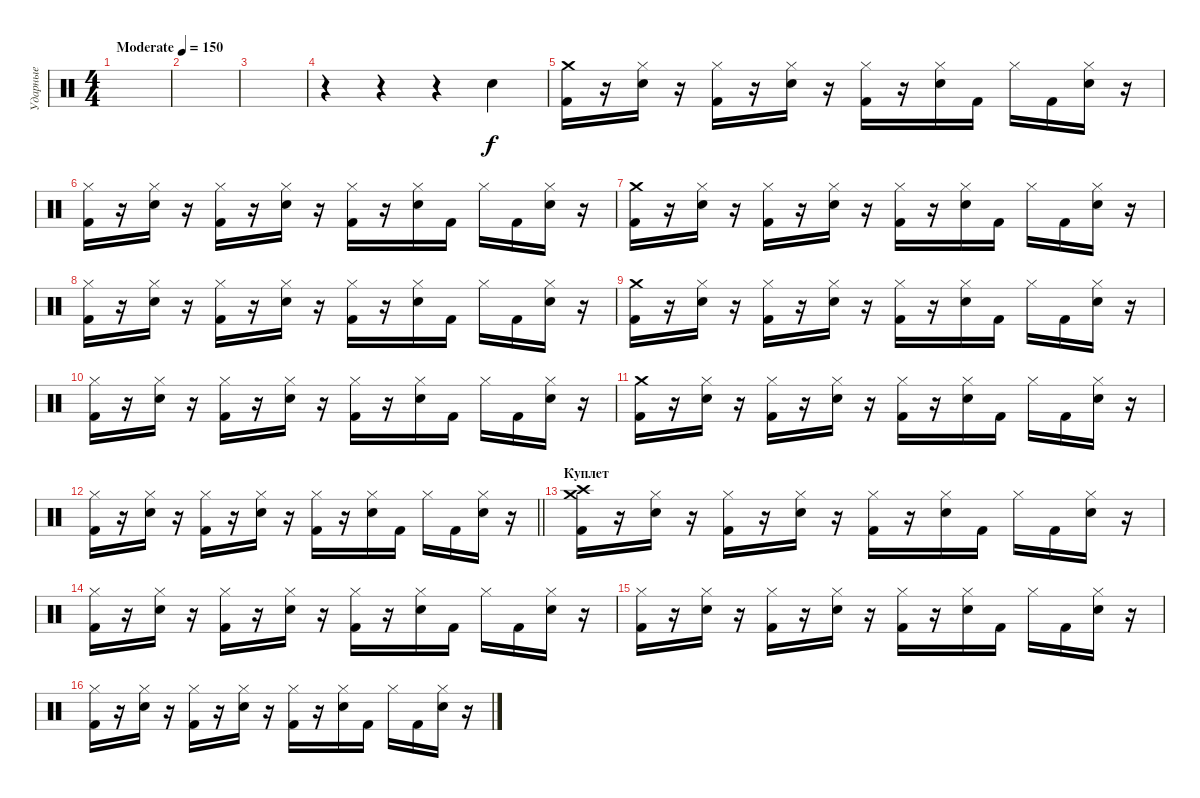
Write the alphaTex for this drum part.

\track ("Ударные" "Ударные") {instrument percussion}
\staff {score}
\articulation defaults
\ts (4 4)
\tempo (150 "Moderate")
\clef neutral
\ks c
|
|
|
r.4 r.4 r.4 "Snare (hit) 2".4 |
("Crash medium (hit)" "Kick (hit) 2").16 r.16 ("Hi-Hat (closed)" "Snare (hit) 2").16 r.16 ("Hi-Hat (closed)" "Kick (hit) 2").16 r.16 ("Hi-Hat (closed)" "Snare (hit) 2").16 r.16 ("Hi-Hat (closed)" "Kick (hit) 2").16 r.16 ("Hi-Hat (closed)" "Snare (hit) 2").16 "Kick (hit) 2".16 "Hi-Hat (closed)".16 "Kick (hit) 2".16 ("Hi-Hat (closed)" "Snare (hit) 2").16 r.16 |
("Hi-Hat (closed)" "Kick (hit) 2").16 r.16 ("Hi-Hat (closed)" "Snare (hit) 2").16 r.16 ("Hi-Hat (closed)" "Kick (hit) 2").16 r.16 ("Hi-Hat (closed)" "Snare (hit) 2").16 r.16 ("Hi-Hat (closed)" "Kick (hit) 2").16 r.16 ("Hi-Hat (closed)" "Snare (hit) 2").16 "Kick (hit) 2".16 "Hi-Hat (closed)".16 "Kick (hit) 2".16 ("Hi-Hat (closed)" "Snare (hit) 2").16 r.16 |
("Crash medium (hit)" "Kick (hit) 2").16 r.16 ("Hi-Hat (closed)" "Snare (hit) 2").16 r.16 ("Hi-Hat (closed)" "Kick (hit) 2").16 r.16 ("Hi-Hat (closed)" "Snare (hit) 2").16 r.16 ("Hi-Hat (closed)" "Kick (hit) 2").16 r.16 ("Hi-Hat (closed)" "Snare (hit) 2").16 "Kick (hit) 2".16 "Hi-Hat (closed)".16 "Kick (hit) 2".16 ("Hi-Hat (closed)" "Snare (hit) 2").16 r.16 |
("Hi-Hat (closed)" "Kick (hit) 2").16 r.16 ("Hi-Hat (closed)" "Snare (hit) 2").16 r.16 ("Hi-Hat (closed)" "Kick (hit) 2").16 r.16 ("Hi-Hat (closed)" "Snare (hit) 2").16 r.16 ("Hi-Hat (closed)" "Kick (hit) 2").16 r.16 ("Hi-Hat (closed)" "Snare (hit) 2").16 "Kick (hit) 2".16 "Hi-Hat (closed)".16 "Kick (hit) 2".16 ("Hi-Hat (closed)" "Snare (hit) 2").16 r.16 |
("Crash medium (hit)" "Kick (hit) 2").16 r.16 ("Hi-Hat (closed)" "Snare (hit) 2").16 r.16 ("Hi-Hat (closed)" "Kick (hit) 2").16 r.16 ("Hi-Hat (closed)" "Snare (hit) 2").16 r.16 ("Hi-Hat (closed)" "Kick (hit) 2").16 r.16 ("Hi-Hat (closed)" "Snare (hit) 2").16 "Kick (hit) 2".16 "Hi-Hat (closed)".16 "Kick (hit) 2".16 ("Hi-Hat (closed)" "Snare (hit) 2").16 r.16 |
("Hi-Hat (closed)" "Kick (hit) 2").16 r.16 ("Hi-Hat (closed)" "Snare (hit) 2").16 r.16 ("Hi-Hat (closed)" "Kick (hit) 2").16 r.16 ("Hi-Hat (closed)" "Snare (hit) 2").16 r.16 ("Hi-Hat (closed)" "Kick (hit) 2").16 r.16 ("Hi-Hat (closed)" "Snare (hit) 2").16 "Kick (hit) 2".16 "Hi-Hat (closed)".16 "Kick (hit) 2".16 ("Hi-Hat (closed)" "Snare (hit) 2").16 r.16 |
("Crash medium (hit)" "Kick (hit) 2").16 r.16 ("Hi-Hat (closed)" "Snare (hit) 2").16 r.16 ("Hi-Hat (closed)" "Kick (hit) 2").16 r.16 ("Hi-Hat (closed)" "Snare (hit) 2").16 r.16 ("Hi-Hat (closed)" "Kick (hit) 2").16 r.16 ("Hi-Hat (closed)" "Snare (hit) 2").16 "Kick (hit) 2".16 "Hi-Hat (closed)".16 "Kick (hit) 2".16 ("Hi-Hat (closed)" "Snare (hit) 2").16 r.16 |
\barLineRight lightlight
("Hi-Hat (closed)" "Kick (hit) 2").16 r.16 ("Hi-Hat (closed)" "Snare (hit) 2").16 r.16 ("Hi-Hat (closed)" "Kick (hit) 2").16 r.16 ("Hi-Hat (closed)" "Snare (hit) 2").16 r.16 ("Hi-Hat (closed)" "Kick (hit) 2").16 r.16 ("Hi-Hat (closed)" "Snare (hit) 2").16 "Kick (hit) 2".16 "Hi-Hat (closed)".16 "Kick (hit) 2".16 ("Hi-Hat (closed)" "Snare (hit) 2").16 r.16 |
\section ("" "Куплет")
("Crash high (hit)" "Kick (hit) 2" "Crash medium (hit)").16 r.16 ("Hi-Hat (closed)" "Snare (hit) 2").16 r.16 ("Hi-Hat (closed)" "Kick (hit) 2").16 r.16 ("Hi-Hat (closed)" "Snare (hit) 2").16 r.16 ("Hi-Hat (closed)" "Kick (hit) 2").16 r.16 ("Hi-Hat (closed)" "Snare (hit) 2").16 "Kick (hit) 2".16 "Hi-Hat (closed)".16 "Kick (hit) 2".16 ("Hi-Hat (closed)" "Snare (hit) 2").16 r.16 |
("Hi-Hat (closed)" "Kick (hit) 2").16 r.16 ("Hi-Hat (closed)" "Snare (hit) 2").16 r.16 ("Hi-Hat (closed)" "Kick (hit) 2").16 r.16 ("Hi-Hat (closed)" "Snare (hit) 2").16 r.16 ("Hi-Hat (closed)" "Kick (hit) 2").16 r.16 ("Hi-Hat (closed)" "Snare (hit) 2").16 "Kick (hit) 2".16 "Hi-Hat (closed)".16 "Kick (hit) 2".16 ("Hi-Hat (closed)" "Snare (hit) 2").16 r.16 |
("Hi-Hat (closed)" "Kick (hit) 2").16 r.16 ("Hi-Hat (closed)" "Snare (hit) 2").16 r.16 ("Hi-Hat (closed)" "Kick (hit) 2").16 r.16 ("Hi-Hat (closed)" "Snare (hit) 2").16 r.16 ("Hi-Hat (closed)" "Kick (hit) 2").16 r.16 ("Hi-Hat (closed)" "Snare (hit) 2").16 "Kick (hit) 2".16 "Hi-Hat (closed)".16 "Kick (hit) 2".16 ("Hi-Hat (closed)" "Snare (hit) 2").16 r.16 |
("Hi-Hat (closed)" "Kick (hit) 2").16 r.16 ("Hi-Hat (closed)" "Snare (hit) 2").16 r.16 ("Hi-Hat (closed)" "Kick (hit) 2").16 r.16 ("Hi-Hat (closed)" "Snare (hit) 2").16 r.16 ("Hi-Hat (closed)" "Kick (hit) 2").16 r.16 ("Hi-Hat (closed)" "Snare (hit) 2").16 "Kick (hit) 2".16 "Hi-Hat (closed)".16 "Kick (hit) 2".16 ("Hi-Hat (closed)" "Snare (hit) 2").16 r.16
